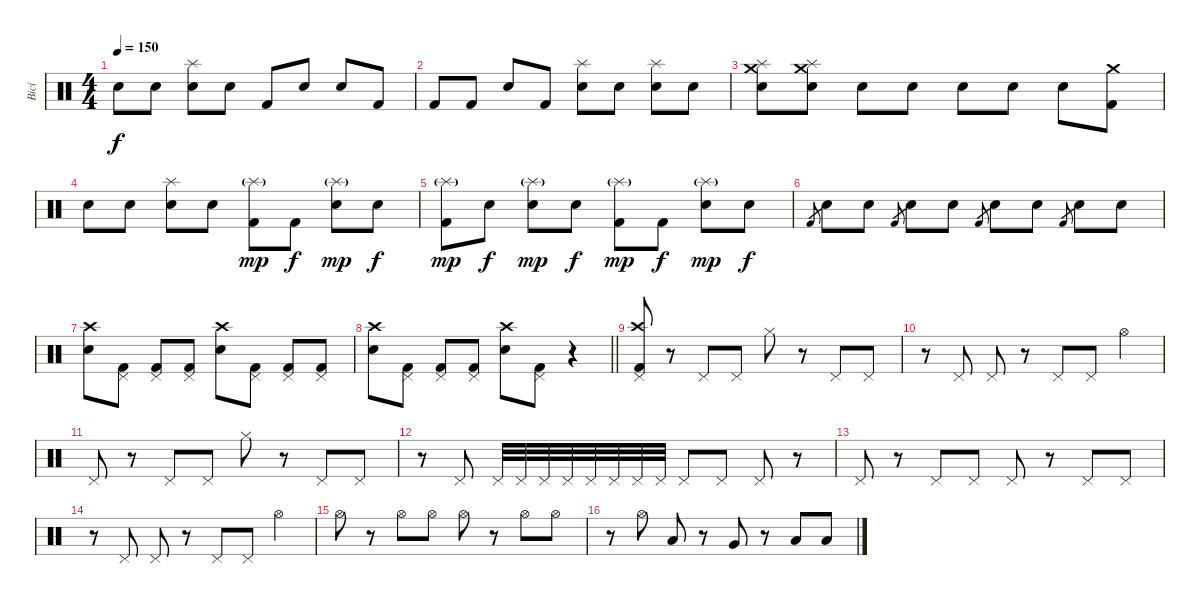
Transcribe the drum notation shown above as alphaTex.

\track ("Bicí" "Bicí") {instrument percussion}
\staff {score}
\articulation defaults
\ts (4 4)
\tempo 150
\clef neutral
\ks c "Snare (hit)".8{dy f} "Snare (hit)".8
("Splash (hit)" "Electric Snare (hit)").8 "Snare (hit)".8 "Kick (hit) 2".8 "Snare (hit)".8 "Electric Snare (hit)".8 "Kick (hit) 2".8 |
"Kick (hit) 2".8 "Kick (hit) 2".8 "Electric Snare (hit)".8 "Kick (hit) 2".8 ("Splash (hit)" "Electric Snare (hit)").8 "Snare (hit)".8 ("Splash (hit)" "Electric Snare (hit)").8 "Snare (hit)".8 |
("Crash medium (hit)" "Splash (hit)" "Electric Snare (hit)").8 ("Crash medium (hit)" "Splash (hit)" "Electric Snare (hit)").8 "Snare (hit)".8 "Snare (hit)".8 "Electric Snare (hit)".8 "Electric Snare (hit)".8 "Electric Snare (hit)".8 ("Crash medium (hit)" "Kick (hit) 2").8 |
"Snare (hit)".8 "Snare (hit)".8 ("Splash (hit)" "Electric Snare (hit)").8 "Snare (hit)".8 ("Splash (hit)"{g} "Kick (hit) 2").8{dy mp} "Kick (hit) 2".8{dy f} ("Splash (hit)"{g} "Electric Snare (hit)").8{dy mp} "Snare (hit)".8{dy f} |
("Splash (hit)"{g} "Kick (hit) 2").8{dy mp} "Snare (hit)".8{dy f} ("Splash (hit)"{g} "Electric Snare (hit)").8{dy mp} "Snare (hit)".8{dy f} ("Splash (hit)"{g} "Kick (hit) 2").8{dy mp} "Kick (hit) 2".8{dy f} ("Splash (hit)"{g} "Electric Snare (hit)").8{dy mp} "Snare (hit)".8{dy f} |
"Kick (hit) 2".8{gr} "Electric Snare (hit)".8 "Snare (hit)".8 "Kick (hit) 2".8{gr} "Electric Snare (hit)".8 "Snare (hit)".8 "Kick (hit) 2".8{gr} "Electric Snare (hit)".8 "Snare (hit)".8 "Kick (hit) 2".8{gr} "Electric Snare (hit)".8 "Snare (hit)".8 |
("Crash high (hit)" "Electric Snare (hit)").8 ("Pedal Hi-Hat (hit)" "Kick (hit) 2").8 ("Pedal Hi-Hat (hit)" "Kick (hit) 2").8 ("Pedal Hi-Hat (hit)" "Kick (hit) 2").8 ("Crash high (hit)" "Electric Snare (hit)").8 ("Pedal Hi-Hat (hit)" "Kick (hit) 2").8 ("Pedal Hi-Hat (hit)" "Kick (hit) 2").8 ("Pedal Hi-Hat (hit)" "Kick (hit) 2").8 |
\barLineRight lightlight
("Crash high (hit)" "Electric Snare (hit)").8 ("Pedal Hi-Hat (hit)" "Kick (hit) 2").8 ("Pedal Hi-Hat (hit)" "Kick (hit) 2").8 ("Pedal Hi-Hat (hit)" "Kick (hit) 2").8 ("Crash high (hit)" "Electric Snare (hit)").8 ("Pedal Hi-Hat (hit)" "Kick (hit) 2").8 r.4 |
\section ("" "")
("Crash high (hit)" "Pedal Hi-Hat (hit)" "Kick (hit) 2").8 r.8 "Pedal Hi-Hat (hit)".8 "Pedal Hi-Hat (hit)".8 "Hi-Hat (closed)".8 r.8 "Pedal Hi-Hat (hit)".8 "Pedal Hi-Hat (hit)".8 |
r.8 "Pedal Hi-Hat (hit)".8 "Pedal Hi-Hat (hit)".8 r.8 "Pedal Hi-Hat (hit)".8 "Pedal Hi-Hat (hit)".8 "Hi-Hat (open)".4 |
"Pedal Hi-Hat (hit)".8 r.8 "Pedal Hi-Hat (hit)".8 "Pedal Hi-Hat (hit)".8 "Hi-Hat (closed)".8 r.8 "Pedal Hi-Hat (hit)".8 "Pedal Hi-Hat (hit)".8 |
r.8 "Pedal Hi-Hat (hit)".8 "Pedal Hi-Hat (hit)".32 "Pedal Hi-Hat (hit)".32 "Pedal Hi-Hat (hit)".32 "Pedal Hi-Hat (hit)".32 "Pedal Hi-Hat (hit)".32 "Pedal Hi-Hat (hit)".32 "Pedal Hi-Hat (hit)".32 "Pedal Hi-Hat (hit)".32 "Pedal Hi-Hat (hit)".8 "Pedal Hi-Hat (hit)".8 "Pedal Hi-Hat (hit)".8 r.8 |
"Pedal Hi-Hat (hit)".8 r.8 "Pedal Hi-Hat (hit)".8 "Pedal Hi-Hat (hit)".8 "Pedal Hi-Hat (hit)".8 r.8 "Pedal Hi-Hat (hit)".8 "Pedal Hi-Hat (hit)".8 |
r.8 "Pedal Hi-Hat (hit)".8 "Pedal Hi-Hat (hit)".8 r.8 "Pedal Hi-Hat (hit)".8 "Pedal Hi-Hat (hit)".8 "Hi-Hat (open)".4 |
"Hi-Hat (open)".8 r.8 "Hi-Hat (open)".8 "Hi-Hat (open)".8 "Hi-Hat (open)".8 r.8 "Hi-Hat (open)".8 "Hi-Hat (open)".8 |
r.8 "Hi-Hat (open)".8 "Low Tom (hit)".8 r.8 "Very Low Tom (hit)".8 r.8 "Low Floor Tom (hit)".8 "Low Floor Tom (hit)".8
